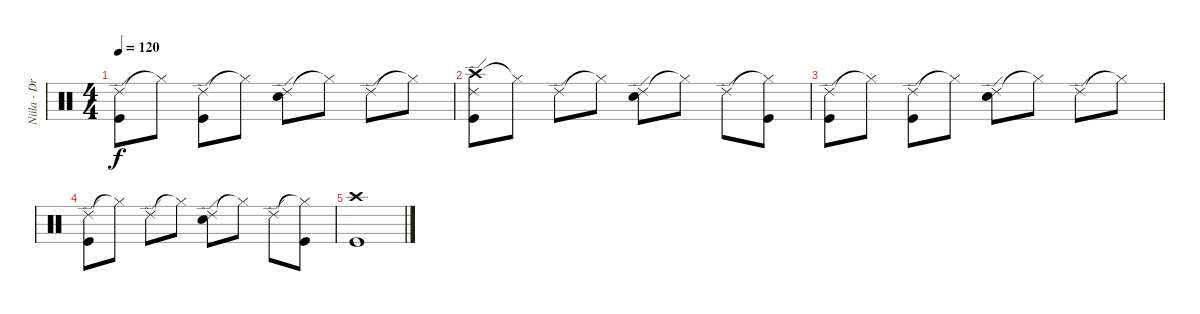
\track ("Niila - Drums" "Niila - Dr") {instrument percussion}
\staff {score}
\articulation defaults
\ts (4 4)
\tempo 120
\clef neutral
\ks c
("Ride (edge) 2" "Kick (hit)").8{dy f} "Hi-Hat (closed)"{t}.8 ("Ride (edge) 2" "Kick (hit)").8 "Hi-Hat (closed)"{t}.8 ("Ride (edge) 2" "Snare (hit) 2").8 "Hi-Hat (closed)"{t}.8 "Ride (edge) 2".8 "Hi-Hat (closed)"{t}.8 |
("Crash high (hit)" "Ride (edge) 2" "Kick (hit)").8 "Hi-Hat (closed)"{t}.8 "Ride (edge) 2".8 "Hi-Hat (closed)"{t}.8 ("Ride (edge) 2" "Snare (hit) 2").8 "Hi-Hat (closed)"{t}.8 "Ride (edge) 2".8 ("Hi-Hat (closed)"{t} "Kick (hit)").8 |
("Ride (edge) 2" "Kick (hit)").8 "Hi-Hat (closed)"{t}.8 ("Ride (edge) 2" "Kick (hit)").8 "Hi-Hat (closed)"{t}.8 ("Ride (edge) 2" "Snare (hit) 2").8 "Hi-Hat (closed)"{t}.8 "Ride (edge) 2".8 "Hi-Hat (closed)"{t}.8 |
("Ride (edge) 2" "Kick (hit)").8 "Hi-Hat (closed)"{t}.8 "Ride (edge) 2".8 "Hi-Hat (closed)"{t}.8 ("Ride (edge) 2" "Snare (hit) 2").8 "Hi-Hat (closed)"{t}.8 "Ride (edge) 2".8 ("Hi-Hat (closed)"{t} "Kick (hit)").8 |
("Crash high (hit)" "Kick (hit)").1
